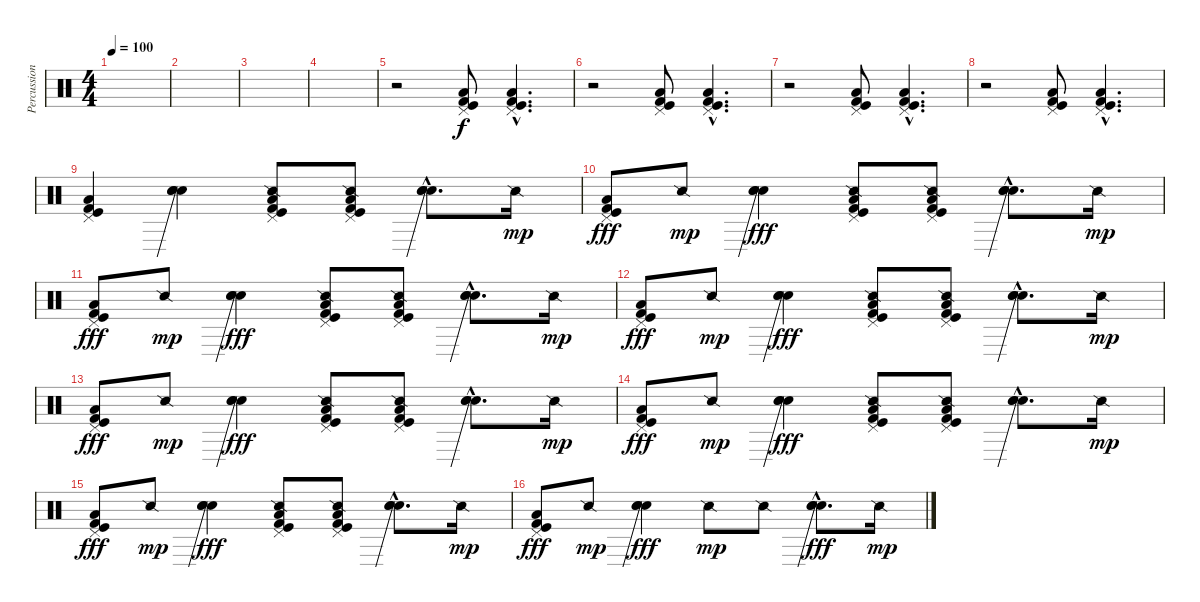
\track ("Percussion" "Percussion") {instrument percussion}
\staff {score}
\articulation defaults
\ts (4 4)
\tempo 100
\clef neutral
\ks c
|
|
|
|
r.2 ("Pedal Hi-Hat (hit)" "Low Floor Tom (hit)" "Kick (hit) 2" "Kick (hit)").8 ("Pedal Hi-Hat (hit)"{hac} "Low Floor Tom (hit)"{hac} "Kick (hit) 2"{hac} "Kick (hit)"{hac}).4{d} |
r.2 ("Pedal Hi-Hat (hit)" "Low Floor Tom (hit)" "Kick (hit) 2" "Kick (hit)").8 ("Pedal Hi-Hat (hit)"{hac} "Low Floor Tom (hit)"{hac} "Kick (hit) 2"{hac} "Kick (hit)"{hac}).4{d} |
r.2 ("Pedal Hi-Hat (hit)" "Low Floor Tom (hit)" "Kick (hit) 2" "Kick (hit)").8 ("Pedal Hi-Hat (hit)"{hac} "Low Floor Tom (hit)"{hac} "Kick (hit) 2"{hac} "Kick (hit)"{hac}).4{d} |
r.2 ("Pedal Hi-Hat (hit)" "Low Floor Tom (hit)" "Kick (hit) 2" "Kick (hit)").8 ("Pedal Hi-Hat (hit)"{hac} "Low Floor Tom (hit)"{hac} "Kick (hit) 2"{hac} "Kick (hit)"{hac}).4{d} |
("Pedal Hi-Hat (hit)" "Low Floor Tom (hit)" "Kick (hit) 2" "Kick (hit)").4 ("Electric Snare (hit)" "Hand Clap (hit)" "Hand Clap (hit)"{be (prebend 0 6 60 6)}).4 ("Snare (side stick) 2" "Pedal Hi-Hat (hit)" "Low Floor Tom (hit)" "Kick (hit) 2" "Kick (hit)").8 ("Snare (side stick) 2" "Pedal Hi-Hat (hit)" "Low Floor Tom (hit)" "Kick (hit) 2" "Kick (hit)").8 ("Electric Snare (hit)"{hac} "Hand Clap (hit)"{hac} "Hand Clap (hit)"{be (prebend 0 6 60 6) hac}).8{d} "Snare (side stick) 2".16{dy mp} |
("Pedal Hi-Hat (hit)" "Low Floor Tom (hit)" "Kick (hit) 2" "Kick (hit)").8{dy fff} "Snare (side stick) 2".8{dy mp} ("Electric Snare (hit)" "Hand Clap (hit)" "Hand Clap (hit)"{be (prebend 0 6 60 6)}).4{dy fff} ("Snare (side stick) 2" "Pedal Hi-Hat (hit)" "Low Floor Tom (hit)" "Kick (hit) 2" "Kick (hit)").8 ("Snare (side stick) 2" "Pedal Hi-Hat (hit)" "Low Floor Tom (hit)" "Kick (hit) 2" "Kick (hit)").8 ("Electric Snare (hit)"{hac} "Hand Clap (hit)"{hac} "Hand Clap (hit)"{be (prebend 0 6 60 6) hac}).8{d} "Snare (side stick) 2".16{dy mp} |
("Pedal Hi-Hat (hit)" "Low Floor Tom (hit)" "Kick (hit) 2" "Kick (hit)").8{dy fff} "Snare (side stick) 2".8{dy mp} ("Electric Snare (hit)" "Hand Clap (hit)" "Hand Clap (hit)"{be (prebend 0 6 60 6)}).4{dy fff} ("Snare (side stick) 2" "Pedal Hi-Hat (hit)" "Low Floor Tom (hit)" "Kick (hit) 2" "Kick (hit)").8 ("Snare (side stick) 2" "Pedal Hi-Hat (hit)" "Low Floor Tom (hit)" "Kick (hit) 2" "Kick (hit)").8 ("Electric Snare (hit)"{hac} "Hand Clap (hit)"{hac} "Hand Clap (hit)"{be (prebend 0 6 60 6) hac}).8{d} "Snare (side stick) 2".16{dy mp} |
("Pedal Hi-Hat (hit)" "Low Floor Tom (hit)" "Kick (hit) 2" "Kick (hit)").8{dy fff} "Snare (side stick) 2".8{dy mp} ("Electric Snare (hit)" "Hand Clap (hit)" "Hand Clap (hit)"{be (prebend 0 6 60 6)}).4{dy fff} ("Snare (side stick) 2" "Pedal Hi-Hat (hit)" "Low Floor Tom (hit)" "Kick (hit) 2" "Kick (hit)").8 ("Snare (side stick) 2" "Pedal Hi-Hat (hit)" "Low Floor Tom (hit)" "Kick (hit) 2" "Kick (hit)").8 ("Electric Snare (hit)"{hac} "Hand Clap (hit)"{hac} "Hand Clap (hit)"{be (prebend 0 6 60 6) hac}).8{d} "Snare (side stick) 2".16{dy mp} |
("Pedal Hi-Hat (hit)" "Low Floor Tom (hit)" "Kick (hit) 2" "Kick (hit)").8{dy fff} "Snare (side stick) 2".8{dy mp} ("Electric Snare (hit)" "Hand Clap (hit)" "Hand Clap (hit)"{be (prebend 0 6 60 6)}).4{dy fff} ("Snare (side stick) 2" "Pedal Hi-Hat (hit)" "Low Floor Tom (hit)" "Kick (hit) 2" "Kick (hit)").8 ("Snare (side stick) 2" "Pedal Hi-Hat (hit)" "Low Floor Tom (hit)" "Kick (hit) 2" "Kick (hit)").8 ("Electric Snare (hit)"{hac} "Hand Clap (hit)"{hac} "Hand Clap (hit)"{be (prebend 0 6 60 6) hac}).8{d} "Snare (side stick) 2".16{dy mp} |
("Pedal Hi-Hat (hit)" "Low Floor Tom (hit)" "Kick (hit) 2" "Kick (hit)").8{dy fff} "Snare (side stick) 2".8{dy mp} ("Electric Snare (hit)" "Hand Clap (hit)" "Hand Clap (hit)"{be (prebend 0 6 60 6)}).4{dy fff} ("Snare (side stick) 2" "Pedal Hi-Hat (hit)" "Low Floor Tom (hit)" "Kick (hit) 2" "Kick (hit)").8 ("Snare (side stick) 2" "Pedal Hi-Hat (hit)" "Low Floor Tom (hit)" "Kick (hit) 2" "Kick (hit)").8 ("Electric Snare (hit)"{hac} "Hand Clap (hit)"{hac} "Hand Clap (hit)"{be (prebend 0 6 60 6) hac}).8{d} "Snare (side stick) 2".16{dy mp} |
("Pedal Hi-Hat (hit)" "Low Floor Tom (hit)" "Kick (hit) 2" "Kick (hit)").8{dy fff} "Snare (side stick) 2".8{dy mp} ("Electric Snare (hit)" "Hand Clap (hit)" "Hand Clap (hit)"{be (prebend 0 6 60 6)}).4{dy fff} ("Snare (side stick) 2" "Pedal Hi-Hat (hit)" "Low Floor Tom (hit)" "Kick (hit) 2" "Kick (hit)").8 ("Snare (side stick) 2" "Pedal Hi-Hat (hit)" "Low Floor Tom (hit)" "Kick (hit) 2" "Kick (hit)").8 ("Electric Snare (hit)"{hac} "Hand Clap (hit)"{hac} "Hand Clap (hit)"{be (prebend 0 6 60 6) hac}).8{d} "Snare (side stick) 2".16{dy mp} |
("Pedal Hi-Hat (hit)" "Low Floor Tom (hit)" "Kick (hit) 2" "Kick (hit)").8{dy fff} "Snare (side stick) 2".8{dy mp} ("Electric Snare (hit)" "Hand Clap (hit)" "Hand Clap (hit)"{be (prebend 0 6 60 6)}).4{dy fff} "Snare (side stick) 2".8{dy mp} "Snare (side stick) 2".8 ("Electric Snare (hit)"{hac} "Hand Clap (hit)"{hac} "Hand Clap (hit)"{be (prebend 0 6 60 6) hac}).8{d dy fff} "Snare (side stick) 2".16{dy mp}
